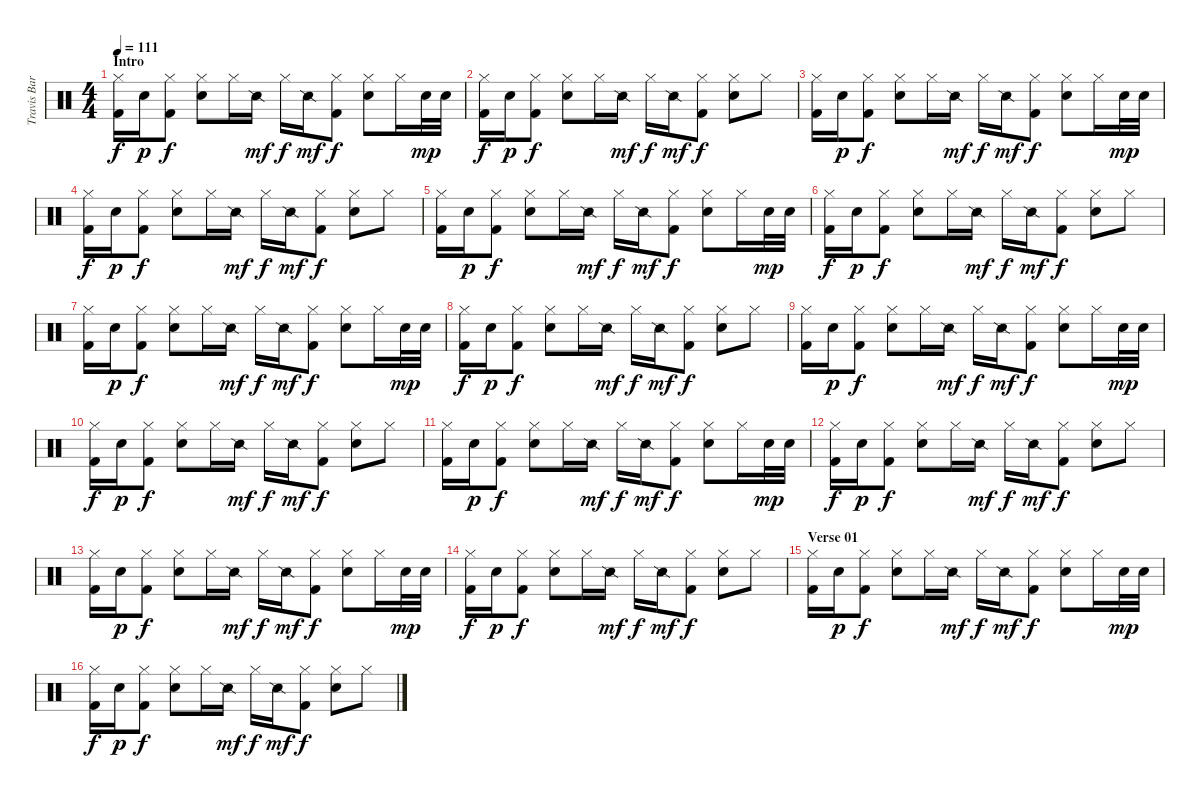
\track ("Travis Barker - Drums" "Travis Bar") {instrument percussion}
\staff {score}
\articulation defaults
\ts (4 4)
\section ("" "Intro")
\tempo 111
\clef neutral
\ks c
("Hi-Hat (closed)" "Kick (hit) 2").16{dy f} "Electric Snare (hit)".16{dy p} ("Hi-Hat (closed)" "Kick (hit) 2").8{dy f} ("Hi-Hat (closed)" "Electric Snare (hit)").8 "Hi-Hat (closed)".16 "Snare (side stick) 2".16{dy mf} "Hi-Hat (closed)".16{dy f} "Snare (side stick) 2".16{dy mf} ("Hi-Hat (closed)" "Kick (hit) 2").8{dy f} ("Hi-Hat (closed)" "Electric Snare (hit)").8 "Hi-Hat (closed)".16 "Electric Snare (hit)".32{dy mp} "Electric Snare (hit)".32 |
("Hi-Hat (closed)" "Kick (hit) 2").16{dy f} "Electric Snare (hit)".16{dy p} ("Hi-Hat (closed)" "Kick (hit) 2").8{dy f} ("Hi-Hat (closed)" "Electric Snare (hit)").8 "Hi-Hat (closed)".16 "Snare (side stick) 2".16{dy mf} "Hi-Hat (closed)".16{dy f} "Snare (side stick) 2".16{dy mf} ("Hi-Hat (closed)" "Kick (hit) 2").8{dy f} ("Hi-Hat (closed)" "Electric Snare (hit)").8 "Hi-Hat (closed)".8 |
("Hi-Hat (closed)" "Kick (hit) 2").16 "Electric Snare (hit)".16{dy p} ("Hi-Hat (closed)" "Kick (hit) 2").8{dy f} ("Hi-Hat (closed)" "Electric Snare (hit)").8 "Hi-Hat (closed)".16 "Snare (side stick) 2".16{dy mf} "Hi-Hat (closed)".16{dy f} "Snare (side stick) 2".16{dy mf} ("Hi-Hat (closed)" "Kick (hit) 2").8{dy f} ("Hi-Hat (closed)" "Electric Snare (hit)").8 "Hi-Hat (closed)".16 "Electric Snare (hit)".32{dy mp} "Electric Snare (hit)".32 |
("Hi-Hat (closed)" "Kick (hit) 2").16{dy f} "Electric Snare (hit)".16{dy p} ("Hi-Hat (closed)" "Kick (hit) 2").8{dy f} ("Hi-Hat (closed)" "Electric Snare (hit)").8 "Hi-Hat (closed)".16 "Snare (side stick) 2".16{dy mf} "Hi-Hat (closed)".16{dy f} "Snare (side stick) 2".16{dy mf} ("Hi-Hat (closed)" "Kick (hit) 2").8{dy f} ("Hi-Hat (closed)" "Electric Snare (hit)").8 "Hi-Hat (closed)".8 |
("Hi-Hat (closed)" "Kick (hit) 2").16 "Electric Snare (hit)".16{dy p} ("Hi-Hat (closed)" "Kick (hit) 2").8{dy f} ("Hi-Hat (closed)" "Electric Snare (hit)").8 "Hi-Hat (closed)".16 "Snare (side stick) 2".16{dy mf} "Hi-Hat (closed)".16{dy f} "Snare (side stick) 2".16{dy mf} ("Hi-Hat (closed)" "Kick (hit) 2").8{dy f} ("Hi-Hat (closed)" "Electric Snare (hit)").8 "Hi-Hat (closed)".16 "Electric Snare (hit)".32{dy mp} "Electric Snare (hit)".32 |
("Hi-Hat (closed)" "Kick (hit) 2").16{dy f} "Electric Snare (hit)".16{dy p} ("Hi-Hat (closed)" "Kick (hit) 2").8{dy f} ("Hi-Hat (closed)" "Electric Snare (hit)").8 "Hi-Hat (closed)".16 "Snare (side stick) 2".16{dy mf} "Hi-Hat (closed)".16{dy f} "Snare (side stick) 2".16{dy mf} ("Hi-Hat (closed)" "Kick (hit) 2").8{dy f} ("Hi-Hat (closed)" "Electric Snare (hit)").8 "Hi-Hat (closed)".8 |
("Hi-Hat (closed)" "Kick (hit) 2").16 "Electric Snare (hit)".16{dy p} ("Hi-Hat (closed)" "Kick (hit) 2").8{dy f} ("Hi-Hat (closed)" "Electric Snare (hit)").8 "Hi-Hat (closed)".16 "Snare (side stick) 2".16{dy mf} "Hi-Hat (closed)".16{dy f} "Snare (side stick) 2".16{dy mf} ("Hi-Hat (closed)" "Kick (hit) 2").8{dy f} ("Hi-Hat (closed)" "Electric Snare (hit)").8 "Hi-Hat (closed)".16 "Electric Snare (hit)".32{dy mp} "Electric Snare (hit)".32 |
("Hi-Hat (closed)" "Kick (hit) 2").16{dy f} "Electric Snare (hit)".16{dy p} ("Hi-Hat (closed)" "Kick (hit) 2").8{dy f} ("Hi-Hat (closed)" "Electric Snare (hit)").8 "Hi-Hat (closed)".16 "Snare (side stick) 2".16{dy mf} "Hi-Hat (closed)".16{dy f} "Snare (side stick) 2".16{dy mf} ("Hi-Hat (closed)" "Kick (hit) 2").8{dy f} ("Hi-Hat (closed)" "Electric Snare (hit)").8 "Hi-Hat (closed)".8 |
("Hi-Hat (closed)" "Kick (hit) 2").16 "Electric Snare (hit)".16{dy p} ("Hi-Hat (closed)" "Kick (hit) 2").8{dy f} ("Hi-Hat (closed)" "Electric Snare (hit)").8 "Hi-Hat (closed)".16 "Snare (side stick) 2".16{dy mf} "Hi-Hat (closed)".16{dy f} "Snare (side stick) 2".16{dy mf} ("Hi-Hat (closed)" "Kick (hit) 2").8{dy f} ("Hi-Hat (closed)" "Electric Snare (hit)").8 "Hi-Hat (closed)".16 "Electric Snare (hit)".32{dy mp} "Electric Snare (hit)".32 |
("Hi-Hat (closed)" "Kick (hit) 2").16{dy f} "Electric Snare (hit)".16{dy p} ("Hi-Hat (closed)" "Kick (hit) 2").8{dy f} ("Hi-Hat (closed)" "Electric Snare (hit)").8 "Hi-Hat (closed)".16 "Snare (side stick) 2".16{dy mf} "Hi-Hat (closed)".16{dy f} "Snare (side stick) 2".16{dy mf} ("Hi-Hat (closed)" "Kick (hit) 2").8{dy f} ("Hi-Hat (closed)" "Electric Snare (hit)").8 "Hi-Hat (closed)".8 |
("Hi-Hat (closed)" "Kick (hit) 2").16 "Electric Snare (hit)".16{dy p} ("Hi-Hat (closed)" "Kick (hit) 2").8{dy f} ("Hi-Hat (closed)" "Electric Snare (hit)").8 "Hi-Hat (closed)".16 "Snare (side stick) 2".16{dy mf} "Hi-Hat (closed)".16{dy f} "Snare (side stick) 2".16{dy mf} ("Hi-Hat (closed)" "Kick (hit) 2").8{dy f} ("Hi-Hat (closed)" "Electric Snare (hit)").8 "Hi-Hat (closed)".16 "Electric Snare (hit)".32{dy mp} "Electric Snare (hit)".32 |
("Hi-Hat (closed)" "Kick (hit) 2").16{dy f} "Electric Snare (hit)".16{dy p} ("Hi-Hat (closed)" "Kick (hit) 2").8{dy f} ("Hi-Hat (closed)" "Electric Snare (hit)").8 "Hi-Hat (closed)".16 "Snare (side stick) 2".16{dy mf} "Hi-Hat (closed)".16{dy f} "Snare (side stick) 2".16{dy mf} ("Hi-Hat (closed)" "Kick (hit) 2").8{dy f} ("Hi-Hat (closed)" "Electric Snare (hit)").8 "Hi-Hat (closed)".8 |
("Hi-Hat (closed)" "Kick (hit) 2").16 "Electric Snare (hit)".16{dy p} ("Hi-Hat (closed)" "Kick (hit) 2").8{dy f} ("Hi-Hat (closed)" "Electric Snare (hit)").8 "Hi-Hat (closed)".16 "Snare (side stick) 2".16{dy mf} "Hi-Hat (closed)".16{dy f} "Snare (side stick) 2".16{dy mf} ("Hi-Hat (closed)" "Kick (hit) 2").8{dy f} ("Hi-Hat (closed)" "Electric Snare (hit)").8 "Hi-Hat (closed)".16 "Electric Snare (hit)".32{dy mp} "Electric Snare (hit)".32 |
("Hi-Hat (closed)" "Kick (hit) 2").16{dy f} "Electric Snare (hit)".16{dy p} ("Hi-Hat (closed)" "Kick (hit) 2").8{dy f} ("Hi-Hat (closed)" "Electric Snare (hit)").8 "Hi-Hat (closed)".16 "Snare (side stick) 2".16{dy mf} "Hi-Hat (closed)".16{dy f} "Snare (side stick) 2".16{dy mf} ("Hi-Hat (closed)" "Kick (hit) 2").8{dy f} ("Hi-Hat (closed)" "Electric Snare (hit)").8 "Hi-Hat (closed)".8 |
\section ("" "Verse 01")
("Hi-Hat (closed)" "Kick (hit) 2").16 "Electric Snare (hit)".16{dy p} ("Hi-Hat (closed)" "Kick (hit) 2").8{dy f} ("Hi-Hat (closed)" "Electric Snare (hit)").8 "Hi-Hat (closed)".16 "Snare (side stick) 2".16{dy mf} "Hi-Hat (closed)".16{dy f} "Snare (side stick) 2".16{dy mf} ("Hi-Hat (closed)" "Kick (hit) 2").8{dy f} ("Hi-Hat (closed)" "Electric Snare (hit)").8 "Hi-Hat (closed)".16 "Electric Snare (hit)".32{dy mp} "Electric Snare (hit)".32 |
("Hi-Hat (closed)" "Kick (hit) 2").16{dy f} "Electric Snare (hit)".16{dy p} ("Hi-Hat (closed)" "Kick (hit) 2").8{dy f} ("Hi-Hat (closed)" "Electric Snare (hit)").8 "Hi-Hat (closed)".16 "Snare (side stick) 2".16{dy mf} "Hi-Hat (closed)".16{dy f} "Snare (side stick) 2".16{dy mf} ("Hi-Hat (closed)" "Kick (hit) 2").8{dy f} ("Hi-Hat (closed)" "Electric Snare (hit)").8 "Hi-Hat (closed)".8
